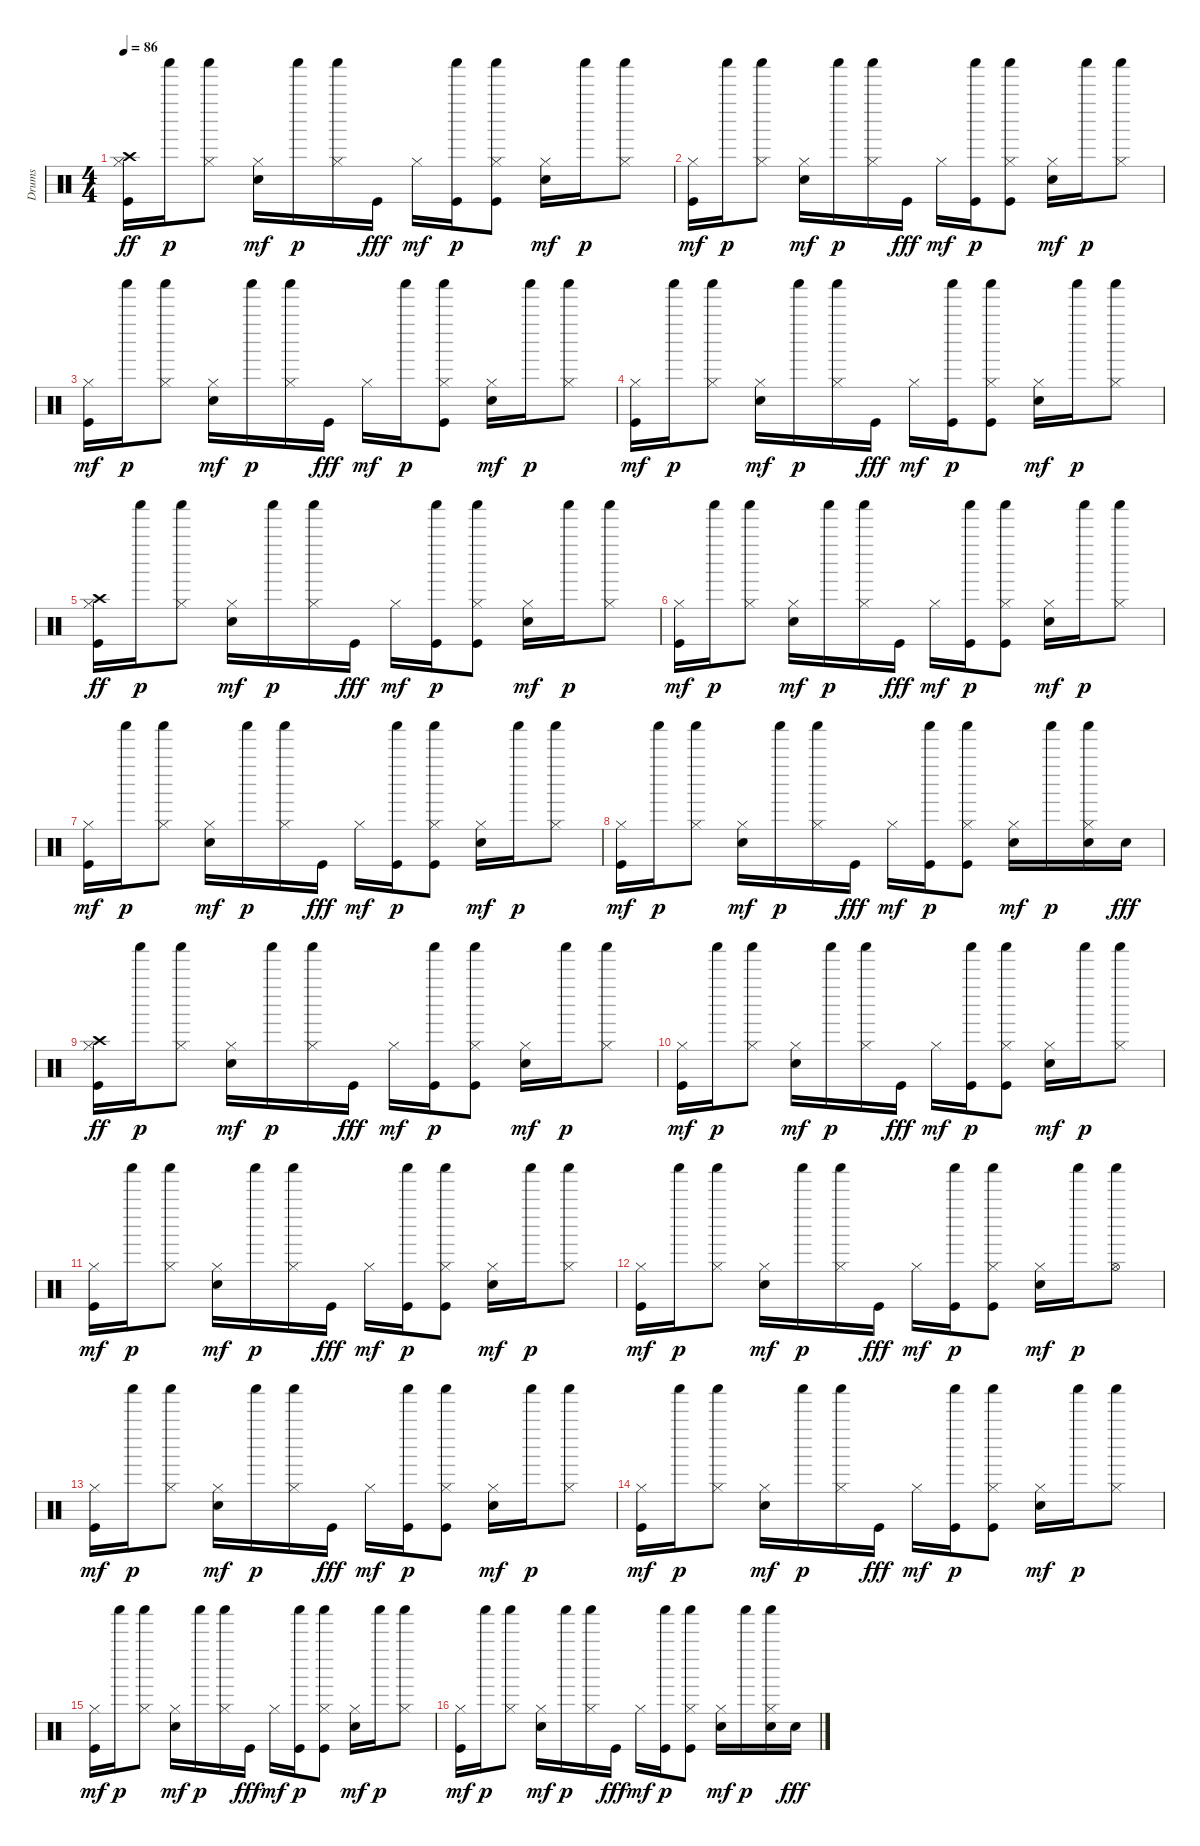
\track ("Drums               " "Drums     ") {instrument percussion}
\staff {score}
\articulation defaults
\ts (4 4)
\tempo 86
\clef neutral
\ks c
("Kick (hit)" "Hi-Hat (closed)" "Crash high (hit)").16{dy ff} "Shaker (hit)".16{dy p} ("Hi-Hat (closed)" "Shaker (hit)").8 ("Snare (hit) 2" "Hi-Hat (closed)").16{dy mf} "Shaker (hit)".16{dy p} ("Hi-Hat (closed)" "Shaker (hit)").16 "Kick (hit)".16{dy fff} "Hi-Hat (closed)".16{dy mf} ("Kick (hit)" "Shaker (hit)").16{dy p} ("Kick (hit)" "Hi-Hat (closed)" "Shaker (hit)").8 ("Snare (hit) 2" "Hi-Hat (closed)").16{dy mf} "Shaker (hit)".16{dy p} ("Hi-Hat (closed)" "Shaker (hit)").8 |
("Kick (hit)" "Hi-Hat (closed)").16{dy mf} "Shaker (hit)".16{dy p} ("Hi-Hat (closed)" "Shaker (hit)").8 ("Snare (hit) 2" "Hi-Hat (closed)").16{dy mf} "Shaker (hit)".16{dy p} ("Hi-Hat (closed)" "Shaker (hit)").16 "Kick (hit)".16{dy fff} "Hi-Hat (closed)".16{dy mf} ("Kick (hit)" "Shaker (hit)").16{dy p} ("Kick (hit)" "Hi-Hat (closed)" "Shaker (hit)").8 ("Snare (hit) 2" "Hi-Hat (closed)").16{dy mf} "Shaker (hit)".16{dy p} ("Hi-Hat (closed)" "Shaker (hit)").8 |
("Kick (hit)" "Hi-Hat (closed)").16{dy mf} "Shaker (hit)".16{dy p} ("Hi-Hat (closed)" "Shaker (hit)").8 ("Snare (hit) 2" "Hi-Hat (closed)").16{dy mf} "Shaker (hit)".16{dy p} ("Hi-Hat (closed)" "Shaker (hit)").16 "Kick (hit)".16{dy fff} "Hi-Hat (closed)".16{dy mf} "Shaker (hit)".16{dy p} ("Kick (hit)" "Hi-Hat (closed)" "Shaker (hit)").8 ("Snare (hit) 2" "Hi-Hat (closed)").16{dy mf} "Shaker (hit)".16{dy p} ("Hi-Hat (closed)" "Shaker (hit)").8 |
("Kick (hit)" "Hi-Hat (closed)").16{dy mf} "Shaker (hit)".16{dy p} ("Hi-Hat (closed)" "Shaker (hit)").8 ("Snare (hit) 2" "Hi-Hat (closed)").16{dy mf} "Shaker (hit)".16{dy p} ("Hi-Hat (closed)" "Shaker (hit)").16 "Kick (hit)".16{dy fff} "Hi-Hat (closed)".16{dy mf} ("Kick (hit)" "Shaker (hit)").16{dy p} ("Kick (hit)" "Hi-Hat (closed)" "Shaker (hit)").8 ("Snare (hit) 2" "Hi-Hat (closed)").16{dy mf} "Shaker (hit)".16{dy p} ("Hi-Hat (closed)" "Shaker (hit)").8 |
("Kick (hit)" "Hi-Hat (closed)" "Crash high (hit)").16{dy ff} "Shaker (hit)".16{dy p} ("Hi-Hat (closed)" "Shaker (hit)").8 ("Snare (hit) 2" "Hi-Hat (closed)").16{dy mf} "Shaker (hit)".16{dy p} ("Hi-Hat (closed)" "Shaker (hit)").16 "Kick (hit)".16{dy fff} "Hi-Hat (closed)".16{dy mf} ("Kick (hit)" "Shaker (hit)").16{dy p} ("Kick (hit)" "Hi-Hat (closed)" "Shaker (hit)").8 ("Snare (hit) 2" "Hi-Hat (closed)").16{dy mf} "Shaker (hit)".16{dy p} ("Hi-Hat (closed)" "Shaker (hit)").8 |
("Kick (hit)" "Hi-Hat (closed)").16{dy mf} "Shaker (hit)".16{dy p} ("Hi-Hat (closed)" "Shaker (hit)").8 ("Snare (hit) 2" "Hi-Hat (closed)").16{dy mf} "Shaker (hit)".16{dy p} ("Hi-Hat (closed)" "Shaker (hit)").16 "Kick (hit)".16{dy fff} "Hi-Hat (closed)".16{dy mf} ("Kick (hit)" "Shaker (hit)").16{dy p} ("Kick (hit)" "Hi-Hat (closed)" "Shaker (hit)").8 ("Snare (hit) 2" "Hi-Hat (closed)").16{dy mf} "Shaker (hit)".16{dy p} ("Hi-Hat (closed)" "Shaker (hit)").8 |
("Kick (hit)" "Hi-Hat (closed)").16{dy mf} "Shaker (hit)".16{dy p} ("Hi-Hat (closed)" "Shaker (hit)").8 ("Snare (hit) 2" "Hi-Hat (closed)").16{dy mf} "Shaker (hit)".16{dy p} ("Hi-Hat (closed)" "Shaker (hit)").16 "Kick (hit)".16{dy fff} "Hi-Hat (closed)".16{dy mf} ("Kick (hit)" "Shaker (hit)").16{dy p} ("Kick (hit)" "Hi-Hat (closed)" "Shaker (hit)").8 ("Snare (hit) 2" "Hi-Hat (closed)").16{dy mf} "Shaker (hit)".16{dy p} ("Hi-Hat (closed)" "Shaker (hit)").8 |
("Kick (hit)" "Hi-Hat (closed)").16{dy mf} "Shaker (hit)".16{dy p} ("Hi-Hat (closed)" "Shaker (hit)").8 ("Snare (hit) 2" "Hi-Hat (closed)").16{dy mf} "Shaker (hit)".16{dy p} ("Hi-Hat (closed)" "Shaker (hit)").16 "Kick (hit)".16{dy fff} "Hi-Hat (closed)".16{dy mf} ("Kick (hit)" "Shaker (hit)").16{dy p} ("Kick (hit)" "Hi-Hat (closed)" "Shaker (hit)").8 ("Snare (hit) 2" "Hi-Hat (closed)").16{dy mf} "Shaker (hit)".16{dy p} ("Snare (hit) 2" "Hi-Hat (closed)" "Shaker (hit)").16 "Snare (hit) 2".16{dy fff} |
("Kick (hit)" "Hi-Hat (closed)" "Crash high (hit)").16{dy ff} "Shaker (hit)".16{dy p} ("Hi-Hat (closed)" "Shaker (hit)").8 ("Snare (hit) 2" "Hi-Hat (closed)").16{dy mf} "Shaker (hit)".16{dy p} ("Hi-Hat (closed)" "Shaker (hit)").16 "Kick (hit)".16{dy fff} "Hi-Hat (closed)".16{dy mf} ("Kick (hit)" "Shaker (hit)").16{dy p} ("Kick (hit)" "Hi-Hat (closed)" "Shaker (hit)").8 ("Snare (hit) 2" "Hi-Hat (closed)").16{dy mf} "Shaker (hit)".16{dy p} ("Hi-Hat (closed)" "Shaker (hit)").8 |
("Kick (hit)" "Hi-Hat (closed)").16{dy mf} "Shaker (hit)".16{dy p} ("Hi-Hat (closed)" "Shaker (hit)").8 ("Snare (hit) 2" "Hi-Hat (closed)").16{dy mf} "Shaker (hit)".16{dy p} ("Hi-Hat (closed)" "Shaker (hit)").16 "Kick (hit)".16{dy fff} "Hi-Hat (closed)".16{dy mf} ("Kick (hit)" "Shaker (hit)").16{dy p} ("Kick (hit)" "Hi-Hat (closed)" "Shaker (hit)").8 ("Snare (hit) 2" "Hi-Hat (closed)").16{dy mf} "Shaker (hit)".16{dy p} ("Hi-Hat (closed)" "Shaker (hit)").8 |
("Kick (hit)" "Hi-Hat (closed)").16{dy mf} "Shaker (hit)".16{dy p} ("Hi-Hat (closed)" "Shaker (hit)").8 ("Snare (hit) 2" "Hi-Hat (closed)").16{dy mf} "Shaker (hit)".16{dy p} ("Hi-Hat (closed)" "Shaker (hit)").16 "Kick (hit)".16{dy fff} "Hi-Hat (closed)".16{dy mf} ("Kick (hit)" "Shaker (hit)").16{dy p} ("Kick (hit)" "Hi-Hat (closed)" "Shaker (hit)").8 ("Snare (hit) 2" "Hi-Hat (closed)").16{dy mf} "Shaker (hit)".16{dy p} ("Hi-Hat (closed)" "Shaker (hit)").8 |
("Kick (hit)" "Hi-Hat (closed)").16{dy mf} "Shaker (hit)".16{dy p} ("Hi-Hat (closed)" "Shaker (hit)").8 ("Snare (hit) 2" "Hi-Hat (closed)").16{dy mf} "Shaker (hit)".16{dy p} ("Hi-Hat (closed)" "Shaker (hit)").16 "Kick (hit)".16{dy fff} "Hi-Hat (closed)".16{dy mf} ("Kick (hit)" "Shaker (hit)").16{dy p} ("Kick (hit)" "Hi-Hat (closed)" "Shaker (hit)").8 ("Snare (hit) 2" "Hi-Hat (closed)").16{dy mf} "Shaker (hit)".16{dy p} ("Hi-Hat (open)" "Shaker (hit)").8 |
("Kick (hit)" "Hi-Hat (closed)").16{dy mf} "Shaker (hit)".16{dy p} ("Hi-Hat (closed)" "Shaker (hit)").8 ("Snare (hit) 2" "Hi-Hat (closed)").16{dy mf} "Shaker (hit)".16{dy p} ("Hi-Hat (closed)" "Shaker (hit)").16 "Kick (hit)".16{dy fff} "Hi-Hat (closed)".16{dy mf} ("Kick (hit)" "Shaker (hit)").16{dy p} ("Kick (hit)" "Hi-Hat (closed)" "Shaker (hit)").8 ("Snare (hit) 2" "Hi-Hat (closed)").16{dy mf} "Shaker (hit)".16{dy p} ("Hi-Hat (closed)" "Shaker (hit)").8 |
("Kick (hit)" "Hi-Hat (closed)").16{dy mf} "Shaker (hit)".16{dy p} ("Hi-Hat (closed)" "Shaker (hit)").8 ("Snare (hit) 2" "Hi-Hat (closed)").16{dy mf} "Shaker (hit)".16{dy p} ("Hi-Hat (closed)" "Shaker (hit)").16 "Kick (hit)".16{dy fff} "Hi-Hat (closed)".16{dy mf} ("Kick (hit)" "Shaker (hit)").16{dy p} ("Kick (hit)" "Hi-Hat (closed)" "Shaker (hit)").8 ("Snare (hit) 2" "Hi-Hat (closed)").16{dy mf} "Shaker (hit)".16{dy p} ("Hi-Hat (closed)" "Shaker (hit)").8 |
("Kick (hit)" "Hi-Hat (closed)").16{dy mf} "Shaker (hit)".16{dy p} ("Hi-Hat (closed)" "Shaker (hit)").8 ("Snare (hit) 2" "Hi-Hat (closed)").16{dy mf} "Shaker (hit)".16{dy p} ("Hi-Hat (closed)" "Shaker (hit)").16 "Kick (hit)".16{dy fff} "Hi-Hat (closed)".16{dy mf} ("Kick (hit)" "Shaker (hit)").16{dy p} ("Kick (hit)" "Hi-Hat (closed)" "Shaker (hit)").8 ("Snare (hit) 2" "Hi-Hat (closed)").16{dy mf} "Shaker (hit)".16{dy p} ("Hi-Hat (closed)" "Shaker (hit)").8 |
("Kick (hit)" "Hi-Hat (closed)").16{dy mf} "Shaker (hit)".16{dy p} ("Hi-Hat (closed)" "Shaker (hit)").8 ("Snare (hit) 2" "Hi-Hat (closed)").16{dy mf} "Shaker (hit)".16{dy p} ("Hi-Hat (closed)" "Shaker (hit)").16 "Kick (hit)".16{dy fff} "Hi-Hat (closed)".16{dy mf} ("Kick (hit)" "Shaker (hit)").16{dy p} ("Kick (hit)" "Hi-Hat (closed)" "Shaker (hit)").8 ("Snare (hit) 2" "Hi-Hat (closed)").16{dy mf} "Shaker (hit)".16{dy p} ("Snare (hit) 2" "Hi-Hat (closed)" "Shaker (hit)").16 "Snare (hit) 2".16{dy fff}
